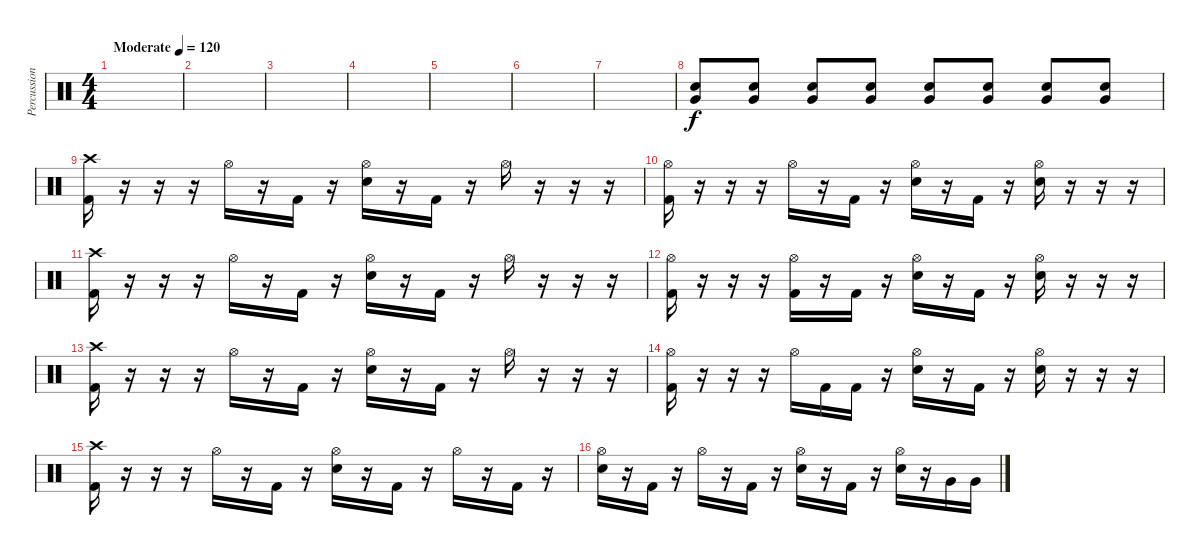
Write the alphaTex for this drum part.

\track ("Percussion" "Percussion") {instrument percussion}
\staff {score}
\articulation defaults
\ts (4 4)
\tempo (120 "Moderate")
\clef neutral
\ks c
|
|
|
|
|
|
|
("Very Low Tom (hit)" "Snare (hit) 2").8 ("Very Low Tom (hit)" "Snare (hit) 2").8 ("Very Low Tom (hit)" "Snare (hit) 2").8 ("Very Low Tom (hit)" "Snare (hit) 2").8 ("Very Low Tom (hit)" "Snare (hit) 2").8 ("Very Low Tom (hit)" "Snare (hit) 2").8 ("Very Low Tom (hit)" "Snare (hit) 2").8 ("Very Low Tom (hit)" "Snare (hit) 2").8 |
("Crash high (hit)" "Kick (hit) 2").16 r.16 r.16 r.16 "Hi-Hat (open)".16 r.16 "Kick (hit) 2".16 r.16 ("Hi-Hat (open)" "Electric Snare (hit)").16 r.16 "Kick (hit) 2".16 r.16 "Hi-Hat (open)".16 r.16 r.16 r.16 |
("Hi-Hat (open)" "Kick (hit) 2").16 r.16 r.16 r.16 "Hi-Hat (open)".16 r.16 "Kick (hit) 2".16 r.16 ("Hi-Hat (open)" "Electric Snare (hit)").16 r.16 "Kick (hit) 2".16 r.16 ("Hi-Hat (open)" "Electric Snare (hit)").16 r.16 r.16 r.16 |
("Crash high (hit)" "Kick (hit) 2").16 r.16 r.16 r.16 "Hi-Hat (open)".16 r.16 "Kick (hit) 2".16 r.16 ("Hi-Hat (open)" "Electric Snare (hit)").16 r.16 "Kick (hit) 2".16 r.16 "Hi-Hat (open)".16 r.16 r.16 r.16 |
("Hi-Hat (open)" "Kick (hit) 2").16 r.16 r.16 r.16 ("Hi-Hat (open)" "Kick (hit) 2").16 r.16 "Kick (hit) 2".16 r.16 ("Hi-Hat (open)" "Electric Snare (hit)").16 r.16 "Kick (hit) 2".16 r.16 ("Hi-Hat (open)" "Electric Snare (hit)").16 r.16 r.16 r.16 |
("Crash high (hit)" "Kick (hit) 2").16 r.16 r.16 r.16 "Hi-Hat (open)".16 r.16 "Kick (hit) 2".16 r.16 ("Hi-Hat (open)" "Electric Snare (hit)").16 r.16 "Kick (hit) 2".16 r.16 "Hi-Hat (open)".16 r.16 r.16 r.16 |
("Hi-Hat (open)" "Kick (hit) 2").16 r.16 r.16 r.16 "Hi-Hat (open)".16 "Kick (hit) 2".16 "Kick (hit) 2".16 r.16 ("Hi-Hat (open)" "Electric Snare (hit)").16 r.16 "Kick (hit) 2".16 r.16 ("Hi-Hat (open)" "Electric Snare (hit)").16 r.16 r.16 r.16 |
("Crash high (hit)" "Kick (hit) 2").16 r.16 r.16 r.16 "Hi-Hat (open)".16 r.16 "Kick (hit) 2".16 r.16 ("Hi-Hat (open)" "Electric Snare (hit)").16 r.16 "Kick (hit) 2".16 r.16 "Hi-Hat (open)".16 r.16 "Kick (hit) 2".16 r.16 |
("Hi-Hat (open)" "Electric Snare (hit)").16 r.16 "Kick (hit) 2".16 r.16 "Hi-Hat (open)".16 r.16 "Kick (hit) 2".16 r.16 ("Hi-Hat (open)" "Electric Snare (hit)").16 r.16 "Kick (hit) 2".16 r.16 ("Hi-Hat (open)" "Electric Snare (hit)").16 r.16 "Very Low Tom (hit)".16 "Very Low Tom (hit)".16
